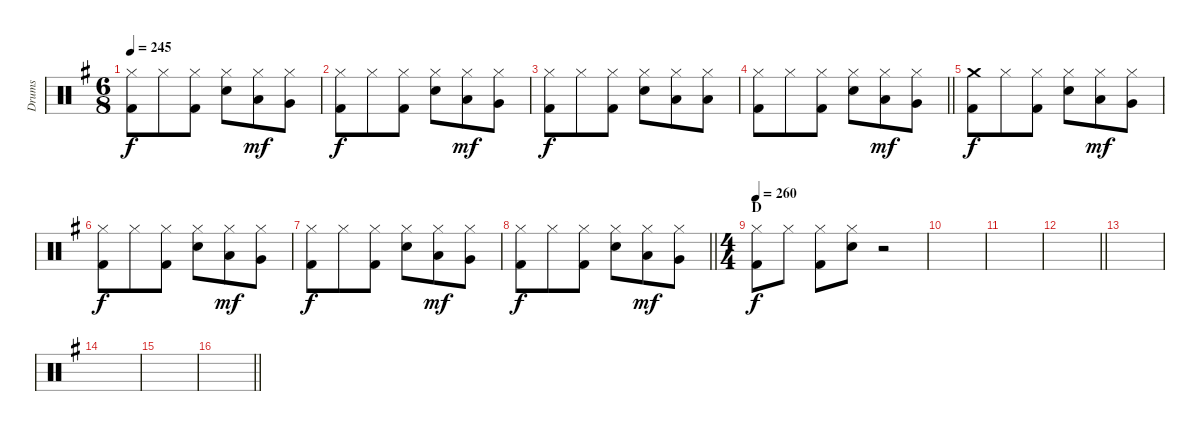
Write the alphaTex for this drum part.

\track ("Drums" "Drums") {instrument percussion}
\staff {score}
\articulation defaults
\ts (6 8)
\tempo 245
\clef neutral
\ks eminor
("Hi-Hat (closed)" "Kick (hit) 2").8{dy f} "Hi-Hat (closed)".8 ("Hi-Hat (closed)" "Kick (hit) 2").8 ("Hi-Hat (closed)" "Electric Snare (hit)").8 ("Hi-Hat (closed)" "Low Tom (hit)").8{dy mf} ("Hi-Hat (closed)" "Very Low Tom (hit)").8 |
("Hi-Hat (closed)" "Kick (hit) 2").8{dy f} "Hi-Hat (closed)".8 ("Hi-Hat (closed)" "Kick (hit) 2").8 ("Hi-Hat (closed)" "Electric Snare (hit)").8 ("Hi-Hat (closed)" "Low Tom (hit)").8{dy mf} ("Hi-Hat (closed)" "Very Low Tom (hit)").8 |
("Hi-Hat (closed)" "Kick (hit) 2").8{dy f} "Hi-Hat (closed)".8 ("Hi-Hat (closed)" "Kick (hit) 2").8 ("Hi-Hat (closed)" "Electric Snare (hit)").8 ("Hi-Hat (closed)" "Low Tom (hit)").8 ("Hi-Hat (closed)" "Low Floor Tom (hit)").8 |
\barLineRight lightlight
("Hi-Hat (closed)" "Kick (hit) 2").8 "Hi-Hat (closed)".8 ("Hi-Hat (closed)" "Kick (hit) 2").8 ("Hi-Hat (closed)" "Electric Snare (hit)").8 ("Hi-Hat (closed)" "Low Tom (hit)").8{dy mf} ("Hi-Hat (closed)" "Very Low Tom (hit)").8 |
\section ("" "")
("Crash medium (hit)" "Kick (hit) 2").8{dy f} "Hi-Hat (closed)".8 ("Hi-Hat (closed)" "Kick (hit) 2").8 ("Hi-Hat (closed)" "Electric Snare (hit)").8 ("Hi-Hat (closed)" "Low Tom (hit)").8{dy mf} ("Hi-Hat (closed)" "Very Low Tom (hit)").8 |
("Hi-Hat (closed)" "Kick (hit) 2").8{dy f} "Hi-Hat (closed)".8 ("Hi-Hat (closed)" "Kick (hit) 2").8 ("Hi-Hat (closed)" "Electric Snare (hit)").8 ("Hi-Hat (closed)" "Low Tom (hit)").8{dy mf} ("Hi-Hat (closed)" "Very Low Tom (hit)").8 |
("Hi-Hat (closed)" "Kick (hit) 2").8{dy f} "Hi-Hat (closed)".8 ("Hi-Hat (closed)" "Kick (hit) 2").8 ("Hi-Hat (closed)" "Electric Snare (hit)").8 ("Hi-Hat (closed)" "Low Tom (hit)").8{dy mf} ("Hi-Hat (closed)" "Very Low Tom (hit)").8 |
\barLineRight lightlight
("Hi-Hat (closed)" "Kick (hit) 2").8{dy f} "Hi-Hat (closed)".8 ("Hi-Hat (closed)" "Kick (hit) 2").8 ("Hi-Hat (closed)" "Electric Snare (hit)").8 ("Hi-Hat (closed)" "Low Tom (hit)").8{dy mf} ("Hi-Hat (closed)" "Very Low Tom (hit)").8 |
\ts (4 4)
\section ("" "D")
\tempo 260
("Hi-Hat (closed)" "Kick (hit) 2").8{dy f} "Hi-Hat (closed)".8 ("Hi-Hat (closed)" "Kick (hit) 2").8 ("Hi-Hat (closed)" "Electric Snare (hit)").8 r.2 |
|
|
\barLineRight lightlight
|
\section ("" "")
|
|
|
\barLineRight lightlight
